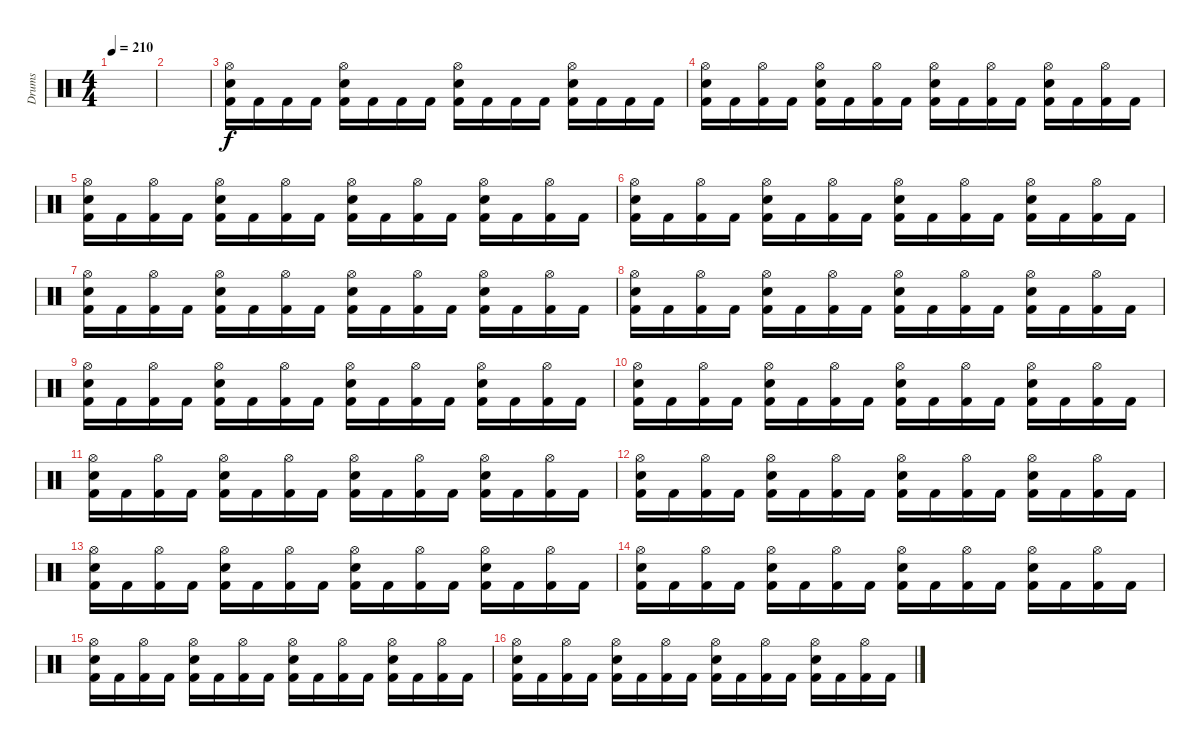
\track ("Drums" "Drums") {instrument percussion}
\staff {score}
\articulation defaults
\ts (4 4)
\tempo 210
\clef neutral
\ks c
|
|
("Hi-Hat (open)" "Electric Snare (hit)" "Kick (hit) 2").16 "Kick (hit) 2".16 "Kick (hit) 2".16 "Kick (hit) 2".16 ("Hi-Hat (open)" "Electric Snare (hit)" "Kick (hit) 2").16 "Kick (hit) 2".16 "Kick (hit) 2".16 "Kick (hit) 2".16 ("Hi-Hat (open)" "Electric Snare (hit)" "Kick (hit) 2").16 "Kick (hit) 2".16 "Kick (hit) 2".16 "Kick (hit) 2".16 ("Hi-Hat (open)" "Electric Snare (hit)" "Kick (hit) 2").16 "Kick (hit) 2".16 "Kick (hit) 2".16 "Kick (hit) 2".16 |
("Hi-Hat (open)" "Electric Snare (hit)" "Kick (hit) 2").16 "Kick (hit) 2".16 ("Hi-Hat (open)" "Kick (hit) 2").16 "Kick (hit) 2".16 ("Hi-Hat (open)" "Electric Snare (hit)" "Kick (hit) 2").16 "Kick (hit) 2".16 ("Hi-Hat (open)" "Kick (hit) 2").16 "Kick (hit) 2".16 ("Hi-Hat (open)" "Electric Snare (hit)" "Kick (hit) 2").16 "Kick (hit) 2".16 ("Hi-Hat (open)" "Kick (hit) 2").16 "Kick (hit) 2".16 ("Hi-Hat (open)" "Electric Snare (hit)" "Kick (hit) 2").16 "Kick (hit) 2".16 ("Hi-Hat (open)" "Kick (hit) 2").16 "Kick (hit) 2".16 |
("Hi-Hat (open)" "Electric Snare (hit)" "Kick (hit) 2").16 "Kick (hit) 2".16 ("Hi-Hat (open)" "Kick (hit) 2").16 "Kick (hit) 2".16 ("Hi-Hat (open)" "Electric Snare (hit)" "Kick (hit) 2").16 "Kick (hit) 2".16 ("Hi-Hat (open)" "Kick (hit) 2").16 "Kick (hit) 2".16 ("Hi-Hat (open)" "Electric Snare (hit)" "Kick (hit) 2").16 "Kick (hit) 2".16 ("Hi-Hat (open)" "Kick (hit) 2").16 "Kick (hit) 2".16 ("Hi-Hat (open)" "Electric Snare (hit)" "Kick (hit) 2").16 "Kick (hit) 2".16 ("Hi-Hat (open)" "Kick (hit) 2").16 "Kick (hit) 2".16 |
("Hi-Hat (open)" "Electric Snare (hit)" "Kick (hit) 2").16 "Kick (hit) 2".16 ("Hi-Hat (open)" "Kick (hit) 2").16 "Kick (hit) 2".16 ("Hi-Hat (open)" "Electric Snare (hit)" "Kick (hit) 2").16 "Kick (hit) 2".16 ("Hi-Hat (open)" "Kick (hit) 2").16 "Kick (hit) 2".16 ("Hi-Hat (open)" "Electric Snare (hit)" "Kick (hit) 2").16 "Kick (hit) 2".16 ("Hi-Hat (open)" "Kick (hit) 2").16 "Kick (hit) 2".16 ("Hi-Hat (open)" "Electric Snare (hit)" "Kick (hit) 2").16 "Kick (hit) 2".16 ("Hi-Hat (open)" "Kick (hit) 2").16 "Kick (hit) 2".16 |
("Hi-Hat (open)" "Electric Snare (hit)" "Kick (hit) 2").16 "Kick (hit) 2".16 ("Hi-Hat (open)" "Kick (hit) 2").16 "Kick (hit) 2".16 ("Hi-Hat (open)" "Electric Snare (hit)" "Kick (hit) 2").16 "Kick (hit) 2".16 ("Hi-Hat (open)" "Kick (hit) 2").16 "Kick (hit) 2".16 ("Hi-Hat (open)" "Electric Snare (hit)" "Kick (hit) 2").16 "Kick (hit) 2".16 ("Hi-Hat (open)" "Kick (hit) 2").16 "Kick (hit) 2".16 ("Hi-Hat (open)" "Electric Snare (hit)" "Kick (hit) 2").16 "Kick (hit) 2".16 ("Hi-Hat (open)" "Kick (hit) 2").16 "Kick (hit) 2".16 |
("Hi-Hat (open)" "Electric Snare (hit)" "Kick (hit) 2").16 "Kick (hit) 2".16 ("Hi-Hat (open)" "Kick (hit) 2").16 "Kick (hit) 2".16 ("Hi-Hat (open)" "Electric Snare (hit)" "Kick (hit) 2").16 "Kick (hit) 2".16 ("Hi-Hat (open)" "Kick (hit) 2").16 "Kick (hit) 2".16 ("Hi-Hat (open)" "Electric Snare (hit)" "Kick (hit) 2").16 "Kick (hit) 2".16 ("Hi-Hat (open)" "Kick (hit) 2").16 "Kick (hit) 2".16 ("Hi-Hat (open)" "Electric Snare (hit)" "Kick (hit) 2").16 "Kick (hit) 2".16 ("Hi-Hat (open)" "Kick (hit) 2").16 "Kick (hit) 2".16 |
("Hi-Hat (open)" "Electric Snare (hit)" "Kick (hit) 2").16 "Kick (hit) 2".16 ("Hi-Hat (open)" "Kick (hit) 2").16 "Kick (hit) 2".16 ("Hi-Hat (open)" "Electric Snare (hit)" "Kick (hit) 2").16 "Kick (hit) 2".16 ("Hi-Hat (open)" "Kick (hit) 2").16 "Kick (hit) 2".16 ("Hi-Hat (open)" "Electric Snare (hit)" "Kick (hit) 2").16 "Kick (hit) 2".16 ("Hi-Hat (open)" "Kick (hit) 2").16 "Kick (hit) 2".16 ("Hi-Hat (open)" "Electric Snare (hit)" "Kick (hit) 2").16 "Kick (hit) 2".16 ("Hi-Hat (open)" "Kick (hit) 2").16 "Kick (hit) 2".16 |
("Hi-Hat (open)" "Electric Snare (hit)" "Kick (hit) 2").16 "Kick (hit) 2".16 ("Hi-Hat (open)" "Kick (hit) 2").16 "Kick (hit) 2".16 ("Hi-Hat (open)" "Electric Snare (hit)" "Kick (hit) 2").16 "Kick (hit) 2".16 ("Hi-Hat (open)" "Kick (hit) 2").16 "Kick (hit) 2".16 ("Hi-Hat (open)" "Electric Snare (hit)" "Kick (hit) 2").16 "Kick (hit) 2".16 ("Hi-Hat (open)" "Kick (hit) 2").16 "Kick (hit) 2".16 ("Hi-Hat (open)" "Electric Snare (hit)" "Kick (hit) 2").16 "Kick (hit) 2".16 ("Hi-Hat (open)" "Kick (hit) 2").16 "Kick (hit) 2".16 |
("Hi-Hat (open)" "Electric Snare (hit)" "Kick (hit) 2").16 "Kick (hit) 2".16 ("Hi-Hat (open)" "Kick (hit) 2").16 "Kick (hit) 2".16 ("Hi-Hat (open)" "Electric Snare (hit)" "Kick (hit) 2").16 "Kick (hit) 2".16 ("Hi-Hat (open)" "Kick (hit) 2").16 "Kick (hit) 2".16 ("Hi-Hat (open)" "Electric Snare (hit)" "Kick (hit) 2").16 "Kick (hit) 2".16 ("Hi-Hat (open)" "Kick (hit) 2").16 "Kick (hit) 2".16 ("Hi-Hat (open)" "Electric Snare (hit)" "Kick (hit) 2").16 "Kick (hit) 2".16 ("Hi-Hat (open)" "Kick (hit) 2").16 "Kick (hit) 2".16 |
("Hi-Hat (open)" "Electric Snare (hit)" "Kick (hit) 2").16 "Kick (hit) 2".16 ("Hi-Hat (open)" "Kick (hit) 2").16 "Kick (hit) 2".16 ("Hi-Hat (open)" "Electric Snare (hit)" "Kick (hit) 2").16 "Kick (hit) 2".16 ("Hi-Hat (open)" "Kick (hit) 2").16 "Kick (hit) 2".16 ("Hi-Hat (open)" "Electric Snare (hit)" "Kick (hit) 2").16 "Kick (hit) 2".16 ("Hi-Hat (open)" "Kick (hit) 2").16 "Kick (hit) 2".16 ("Hi-Hat (open)" "Electric Snare (hit)" "Kick (hit) 2").16 "Kick (hit) 2".16 ("Hi-Hat (open)" "Kick (hit) 2").16 "Kick (hit) 2".16 |
("Hi-Hat (open)" "Electric Snare (hit)" "Kick (hit) 2").16 "Kick (hit) 2".16 ("Hi-Hat (open)" "Kick (hit) 2").16 "Kick (hit) 2".16 ("Hi-Hat (open)" "Electric Snare (hit)" "Kick (hit) 2").16 "Kick (hit) 2".16 ("Hi-Hat (open)" "Kick (hit) 2").16 "Kick (hit) 2".16 ("Hi-Hat (open)" "Electric Snare (hit)" "Kick (hit) 2").16 "Kick (hit) 2".16 ("Hi-Hat (open)" "Kick (hit) 2").16 "Kick (hit) 2".16 ("Hi-Hat (open)" "Electric Snare (hit)" "Kick (hit) 2").16 "Kick (hit) 2".16 ("Hi-Hat (open)" "Kick (hit) 2").16 "Kick (hit) 2".16 |
("Hi-Hat (open)" "Electric Snare (hit)" "Kick (hit) 2").16 "Kick (hit) 2".16 ("Hi-Hat (open)" "Kick (hit) 2").16 "Kick (hit) 2".16 ("Hi-Hat (open)" "Electric Snare (hit)" "Kick (hit) 2").16 "Kick (hit) 2".16 ("Hi-Hat (open)" "Kick (hit) 2").16 "Kick (hit) 2".16 ("Hi-Hat (open)" "Electric Snare (hit)" "Kick (hit) 2").16 "Kick (hit) 2".16 ("Hi-Hat (open)" "Kick (hit) 2").16 "Kick (hit) 2".16 ("Hi-Hat (open)" "Electric Snare (hit)" "Kick (hit) 2").16 "Kick (hit) 2".16 ("Hi-Hat (open)" "Kick (hit) 2").16 "Kick (hit) 2".16 |
("Hi-Hat (open)" "Electric Snare (hit)" "Kick (hit) 2").16 "Kick (hit) 2".16 ("Hi-Hat (open)" "Kick (hit) 2").16 "Kick (hit) 2".16 ("Hi-Hat (open)" "Electric Snare (hit)" "Kick (hit) 2").16 "Kick (hit) 2".16 ("Hi-Hat (open)" "Kick (hit) 2").16 "Kick (hit) 2".16 ("Hi-Hat (open)" "Electric Snare (hit)" "Kick (hit) 2").16 "Kick (hit) 2".16 ("Hi-Hat (open)" "Kick (hit) 2").16 "Kick (hit) 2".16 ("Hi-Hat (open)" "Electric Snare (hit)" "Kick (hit) 2").16 "Kick (hit) 2".16 ("Hi-Hat (open)" "Kick (hit) 2").16 "Kick (hit) 2".16 |
("Hi-Hat (open)" "Electric Snare (hit)" "Kick (hit) 2").16 "Kick (hit) 2".16 ("Hi-Hat (open)" "Kick (hit) 2").16 "Kick (hit) 2".16 ("Hi-Hat (open)" "Electric Snare (hit)" "Kick (hit) 2").16 "Kick (hit) 2".16 ("Hi-Hat (open)" "Kick (hit) 2").16 "Kick (hit) 2".16 ("Hi-Hat (open)" "Electric Snare (hit)" "Kick (hit) 2").16 "Kick (hit) 2".16 ("Hi-Hat (open)" "Kick (hit) 2").16 "Kick (hit) 2".16 ("Hi-Hat (open)" "Electric Snare (hit)" "Kick (hit) 2").16 "Kick (hit) 2".16 ("Hi-Hat (open)" "Kick (hit) 2").16 "Kick (hit) 2".16
